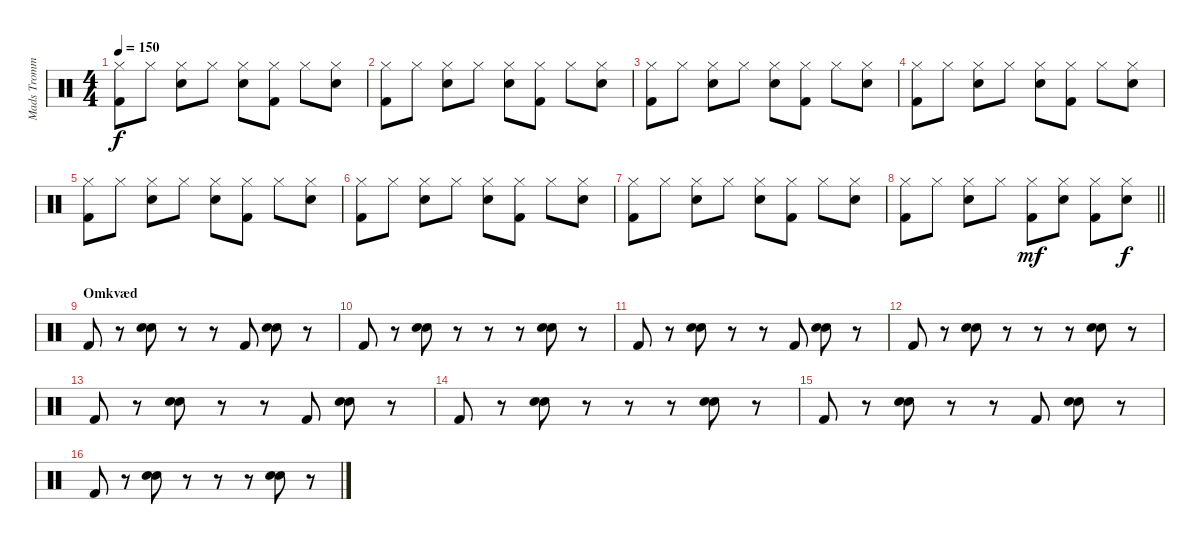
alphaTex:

\track ("Mads Trommer" "Mads Tromm") {instrument percussion}
\staff {score}
\articulation defaults
\ts (4 4)
\tempo 150
\clef neutral
\ks c
("Hi-Hat (closed)" "Kick (hit) 2").8{dy f} "Hi-Hat (closed)".8 ("Hi-Hat (closed)" "Electric Snare (hit)").8 "Hi-Hat (closed)".8 ("Hi-Hat (closed)" "Electric Snare (hit)").8 ("Hi-Hat (closed)" "Kick (hit) 2").8 "Hi-Hat (closed)".8 ("Hi-Hat (closed)" "Electric Snare (hit)").8 |
("Hi-Hat (closed)" "Kick (hit) 2").8 "Hi-Hat (closed)".8 ("Hi-Hat (closed)" "Electric Snare (hit)").8 "Hi-Hat (closed)".8 ("Hi-Hat (closed)" "Electric Snare (hit)").8 ("Hi-Hat (closed)" "Kick (hit) 2").8 "Hi-Hat (closed)".8 ("Hi-Hat (closed)" "Electric Snare (hit)").8 |
("Hi-Hat (closed)" "Kick (hit) 2").8 "Hi-Hat (closed)".8 ("Hi-Hat (closed)" "Electric Snare (hit)").8 "Hi-Hat (closed)".8 ("Hi-Hat (closed)" "Electric Snare (hit)").8 ("Hi-Hat (closed)" "Kick (hit) 2").8 "Hi-Hat (closed)".8 ("Hi-Hat (closed)" "Electric Snare (hit)").8 |
("Hi-Hat (closed)" "Kick (hit) 2").8 "Hi-Hat (closed)".8 ("Hi-Hat (closed)" "Electric Snare (hit)").8 "Hi-Hat (closed)".8 ("Hi-Hat (closed)" "Electric Snare (hit)").8 ("Hi-Hat (closed)" "Kick (hit) 2").8 "Hi-Hat (closed)".8 ("Hi-Hat (closed)" "Electric Snare (hit)").8 |
("Hi-Hat (closed)" "Kick (hit) 2").8 "Hi-Hat (closed)".8 ("Hi-Hat (closed)" "Electric Snare (hit)").8 "Hi-Hat (closed)".8 ("Hi-Hat (closed)" "Electric Snare (hit)").8 ("Hi-Hat (closed)" "Kick (hit) 2").8 "Hi-Hat (closed)".8 ("Hi-Hat (closed)" "Electric Snare (hit)").8 |
("Hi-Hat (closed)" "Kick (hit) 2").8 "Hi-Hat (closed)".8 ("Hi-Hat (closed)" "Electric Snare (hit)").8 "Hi-Hat (closed)".8 ("Hi-Hat (closed)" "Electric Snare (hit)").8 ("Hi-Hat (closed)" "Kick (hit) 2").8 "Hi-Hat (closed)".8 ("Hi-Hat (closed)" "Electric Snare (hit)").8 |
("Hi-Hat (closed)" "Kick (hit) 2").8 "Hi-Hat (closed)".8 ("Hi-Hat (closed)" "Electric Snare (hit)").8 "Hi-Hat (closed)".8 ("Hi-Hat (closed)" "Electric Snare (hit)").8 ("Hi-Hat (closed)" "Kick (hit) 2").8 "Hi-Hat (closed)".8 ("Hi-Hat (closed)" "Electric Snare (hit)").8 |
\barLineRight lightlight
("Hi-Hat (closed)" "Kick (hit) 2").8 "Hi-Hat (closed)".8 ("Hi-Hat (closed)" "Electric Snare (hit)").8 "Hi-Hat (closed)".8 ("Hi-Hat (closed)" "Kick (hit) 2").8{dy mf} ("Hi-Hat (closed)" "Electric Snare (hit)").8 ("Hi-Hat (closed)" "Kick (hit) 2").8 ("Hi-Hat (closed)" "Electric Snare (hit)").8{dy f} |
\section ("" "Omkvæd")
"Kick (hit) 2".8 r.8 ("Hand Clap (hit)" "Electric Snare (hit)").8 r.8 r.8 "Kick (hit) 2".8 ("Hand Clap (hit)" "Electric Snare (hit)").8 r.8 |
"Kick (hit) 2".8 r.8 ("Hand Clap (hit)" "Electric Snare (hit)").8 r.8 r.8 r.8 ("Hand Clap (hit)" "Electric Snare (hit)").8 r.8 |
"Kick (hit) 2".8 r.8 ("Hand Clap (hit)" "Electric Snare (hit)").8 r.8 r.8 "Kick (hit) 2".8 ("Hand Clap (hit)" "Electric Snare (hit)").8 r.8 |
"Kick (hit) 2".8 r.8 ("Hand Clap (hit)" "Electric Snare (hit)").8 r.8 r.8 r.8 ("Hand Clap (hit)" "Electric Snare (hit)").8 r.8 |
"Kick (hit) 2".8 r.8 ("Hand Clap (hit)" "Electric Snare (hit)").8 r.8 r.8 "Kick (hit) 2".8 ("Hand Clap (hit)" "Electric Snare (hit)").8 r.8 |
"Kick (hit) 2".8 r.8 ("Hand Clap (hit)" "Electric Snare (hit)").8 r.8 r.8 r.8 ("Hand Clap (hit)" "Electric Snare (hit)").8 r.8 |
"Kick (hit) 2".8 r.8 ("Hand Clap (hit)" "Electric Snare (hit)").8 r.8 r.8 "Kick (hit) 2".8 ("Hand Clap (hit)" "Electric Snare (hit)").8 r.8 |
"Kick (hit) 2".8 r.8 ("Hand Clap (hit)" "Electric Snare (hit)").8 r.8 r.8 r.8 ("Hand Clap (hit)" "Electric Snare (hit)").8 r.8
